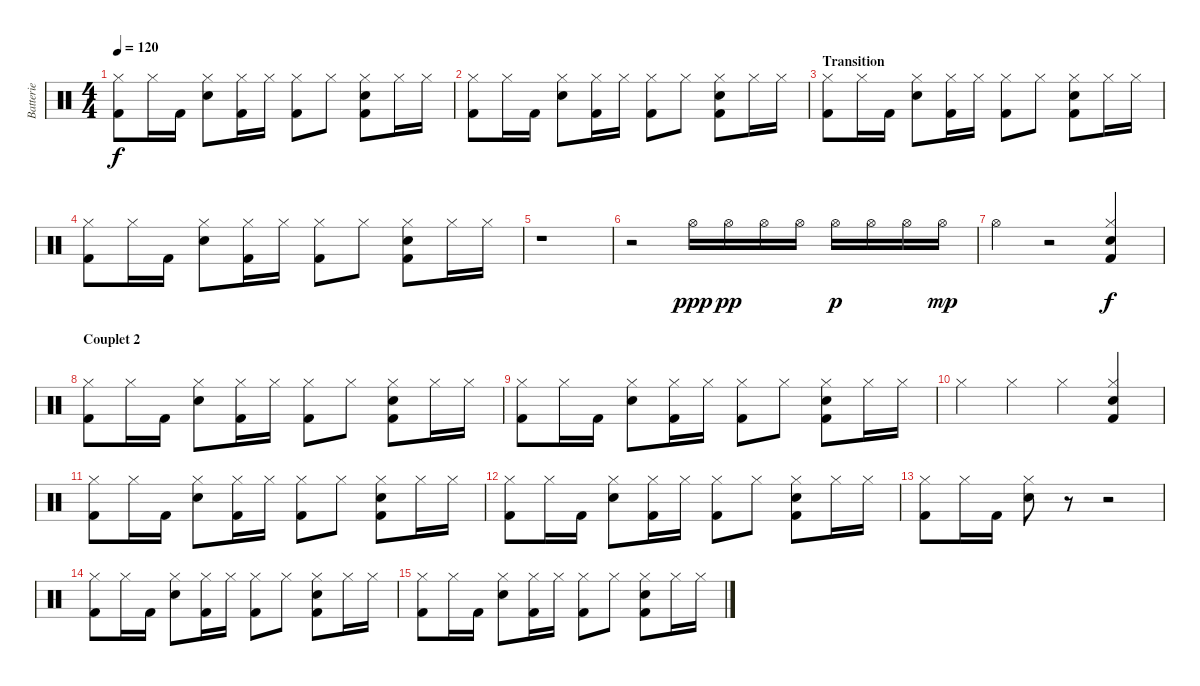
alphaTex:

\track ("Batterie" "Batterie") {instrument percussion}
\staff {score}
\articulation defaults
\ts (4 4)
\tempo 120
\clef neutral
\ks c
("Kick (hit) 2" "Hi-Hat (closed)").8{dy f} "Hi-Hat (closed)".16 "Kick (hit) 2".16 ("Electric Snare (hit)" "Hi-Hat (closed)").8 ("Kick (hit) 2" "Hi-Hat (closed)").16 "Hi-Hat (closed)".16 ("Kick (hit) 2" "Hi-Hat (closed)").8 "Hi-Hat (closed)".8 ("Kick (hit) 2" "Electric Snare (hit)" "Hi-Hat (closed)").8 "Hi-Hat (closed)".16 "Hi-Hat (closed)".16 |
("Kick (hit) 2" "Hi-Hat (closed)").8 "Hi-Hat (closed)".16 "Kick (hit) 2".16 ("Electric Snare (hit)" "Hi-Hat (closed)").8 ("Kick (hit) 2" "Hi-Hat (closed)").16 "Hi-Hat (closed)".16 ("Kick (hit) 2" "Hi-Hat (closed)").8 "Hi-Hat (closed)".8 ("Kick (hit) 2" "Electric Snare (hit)" "Hi-Hat (closed)").8 "Hi-Hat (closed)".16 "Hi-Hat (closed)".16 |
\section ("" "Transition")
("Kick (hit) 2" "Hi-Hat (closed)").8 "Hi-Hat (closed)".16 "Kick (hit) 2".16 ("Electric Snare (hit)" "Hi-Hat (closed)").8 ("Kick (hit) 2" "Hi-Hat (closed)").16 "Hi-Hat (closed)".16 ("Kick (hit) 2" "Hi-Hat (closed)").8 "Hi-Hat (closed)".8 ("Kick (hit) 2" "Electric Snare (hit)" "Hi-Hat (closed)").8 "Hi-Hat (closed)".16 "Hi-Hat (closed)".16 |
("Kick (hit) 2" "Hi-Hat (closed)").8 "Hi-Hat (closed)".16 "Kick (hit) 2".16 ("Electric Snare (hit)" "Hi-Hat (closed)").8 ("Kick (hit) 2" "Hi-Hat (closed)").16 "Hi-Hat (closed)".16 ("Kick (hit) 2" "Hi-Hat (closed)").8 "Hi-Hat (closed)".8 ("Kick (hit) 2" "Electric Snare (hit)" "Hi-Hat (closed)").8 "Hi-Hat (closed)".16 "Hi-Hat (closed)".16 |
r.1 |
r.2 "Hi-Hat (open)".16{dy ppp} "Hi-Hat (open)".16{dy pp} "Hi-Hat (open)".16 "Hi-Hat (open)".16 "Hi-Hat (open)".16{dy p} "Hi-Hat (open)".16 "Hi-Hat (open)".16 "Hi-Hat (open)".16{dy mp} |
"Hi-Hat (open)".4 r.2 ("Kick (hit) 2" "Electric Snare (hit)" "Hi-Hat (closed)").4{dy f} |
\section ("" "Couplet 2")
("Kick (hit) 2" "Hi-Hat (closed)").8 "Hi-Hat (closed)".16 "Kick (hit) 2".16 ("Electric Snare (hit)" "Hi-Hat (closed)").8 ("Kick (hit) 2" "Hi-Hat (closed)").16 "Hi-Hat (closed)".16 ("Kick (hit) 2" "Hi-Hat (closed)").8 "Hi-Hat (closed)".8 ("Kick (hit) 2" "Electric Snare (hit)" "Hi-Hat (closed)").8 "Hi-Hat (closed)".16 "Hi-Hat (closed)".16 |
("Kick (hit) 2" "Hi-Hat (closed)").8 "Hi-Hat (closed)".16 "Kick (hit) 2".16 ("Electric Snare (hit)" "Hi-Hat (closed)").8 ("Kick (hit) 2" "Hi-Hat (closed)").16 "Hi-Hat (closed)".16 ("Kick (hit) 2" "Hi-Hat (closed)").8 "Hi-Hat (closed)".8 ("Kick (hit) 2" "Electric Snare (hit)" "Hi-Hat (closed)").8 "Hi-Hat (closed)".16 "Hi-Hat (closed)".16 |
"Hi-Hat (closed)".4 "Hi-Hat (closed)".4 "Hi-Hat (closed)".4 ("Kick (hit) 2" "Electric Snare (hit)" "Hi-Hat (closed)").4 |
("Kick (hit) 2" "Hi-Hat (closed)").8 "Hi-Hat (closed)".16 "Kick (hit) 2".16 ("Electric Snare (hit)" "Hi-Hat (closed)").8 ("Kick (hit) 2" "Hi-Hat (closed)").16 "Hi-Hat (closed)".16 ("Kick (hit) 2" "Hi-Hat (closed)").8 "Hi-Hat (closed)".8 ("Kick (hit) 2" "Electric Snare (hit)" "Hi-Hat (closed)").8 "Hi-Hat (closed)".16 "Hi-Hat (closed)".16 |
("Kick (hit) 2" "Hi-Hat (closed)").8 "Hi-Hat (closed)".16 "Kick (hit) 2".16 ("Electric Snare (hit)" "Hi-Hat (closed)").8 ("Kick (hit) 2" "Hi-Hat (closed)").16 "Hi-Hat (closed)".16 ("Kick (hit) 2" "Hi-Hat (closed)").8 "Hi-Hat (closed)".8 ("Kick (hit) 2" "Electric Snare (hit)" "Hi-Hat (closed)").8 "Hi-Hat (closed)".16 "Hi-Hat (closed)".16 |
("Kick (hit) 2" "Hi-Hat (closed)").8 "Hi-Hat (closed)".16 "Kick (hit) 2".16 ("Electric Snare (hit)" "Hi-Hat (closed)").8 r.8 r.2 |
("Kick (hit) 2" "Hi-Hat (closed)").8 "Hi-Hat (closed)".16 "Kick (hit) 2".16 ("Electric Snare (hit)" "Hi-Hat (closed)").8 ("Kick (hit) 2" "Hi-Hat (closed)").16 "Hi-Hat (closed)".16 ("Kick (hit) 2" "Hi-Hat (closed)").8 "Hi-Hat (closed)".8 ("Kick (hit) 2" "Electric Snare (hit)" "Hi-Hat (closed)").8 "Hi-Hat (closed)".16 "Hi-Hat (closed)".16 |
("Kick (hit) 2" "Hi-Hat (closed)").8 "Hi-Hat (closed)".16 "Kick (hit) 2".16 ("Electric Snare (hit)" "Hi-Hat (closed)").8 ("Kick (hit) 2" "Hi-Hat (closed)").16 "Hi-Hat (closed)".16 ("Kick (hit) 2" "Hi-Hat (closed)").8 "Hi-Hat (closed)".8 ("Kick (hit) 2" "Electric Snare (hit)" "Hi-Hat (closed)").8 "Hi-Hat (closed)".16 "Hi-Hat (closed)".16
